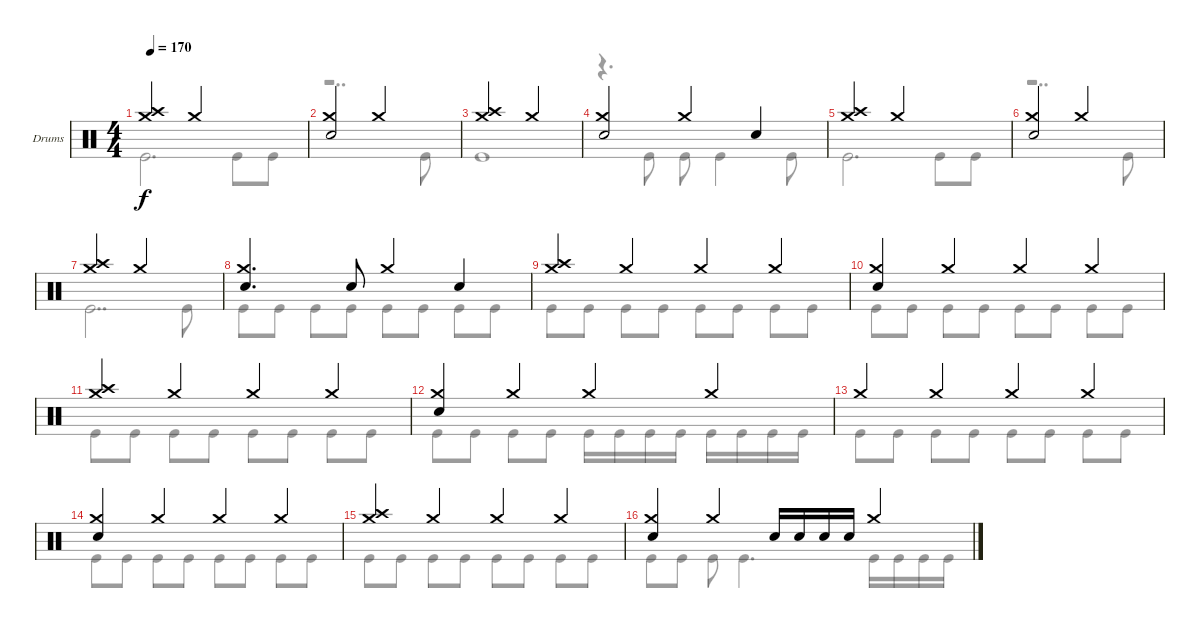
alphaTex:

\defaultSystemsLayout 4
\bracketExtendMode groupsimilarinstruments
\firstSystemTrackNameOrientation horizontal
\otherSystemsTrackNameOrientation horizontal
\track ("Drumkit" "Drums") {instrument percussion}
\staff {score}
\articulation defaults
\voice
\ts (4 4)
\tempo 170
\clef neutral
\ks c
("Crash medium (hit)" "Crash high (hit)").2{dy f} "Crash medium (hit)".2 |
("Crash medium (hit)" "Snare (hit) 2").2 "Crash medium (hit)".2 |
("Crash medium (hit)" "Crash high (hit)").2 "Crash medium (hit)".2 |
("Crash medium (hit)" "Snare (hit) 2").2 "Crash medium (hit)".4 "Snare (hit) 2".4 |
("Crash medium (hit)" "Crash high (hit)").2 "Crash medium (hit)".2 |
("Crash medium (hit)" "Snare (hit) 2").2 "Crash medium (hit)".2 |
("Crash medium (hit)" "Crash high (hit)").2 "Crash medium (hit)".2 |
("Crash medium (hit)" "Snare (hit) 2").4{d} "Snare (hit) 2".8 "Crash medium (hit)".4 "Snare (hit) 2".4 |
("Crash high (hit)" "Crash medium (hit)").4 "Crash medium (hit)".4 "Crash medium (hit)".4 "Crash medium (hit)".4 |
("Crash medium (hit)" "Snare (hit) 2").4 "Crash medium (hit)".4 "Crash medium (hit)".4 "Crash medium (hit)".4 |
("Crash high (hit)" "Crash medium (hit)").4 "Crash medium (hit)".4 "Crash medium (hit)".4 "Crash medium (hit)".4 |
("Crash medium (hit)" "Snare (hit) 2").4 "Crash medium (hit)".4 "Crash medium (hit)".4 "Crash medium (hit)".4 |
"Crash medium (hit)".4 "Crash medium (hit)".4 "Crash medium (hit)".4 "Crash medium (hit)".4 |
("Crash medium (hit)" "Snare (hit) 2").4 "Crash medium (hit)".4 "Crash medium (hit)".4 "Crash medium (hit)".4 |
("Crash high (hit)" "Crash medium (hit)").4 "Crash medium (hit)".4 "Crash medium (hit)".4 "Crash medium (hit)".4 |
("Crash medium (hit)" "Snare (hit) 2").4 "Crash medium (hit)".4 "Snare (hit) 2".16 "Snare (hit) 2".16 "Snare (hit) 2".16 "Snare (hit) 2".16 "Crash medium (hit)".4
\voice
\clef neutral
\ottava regular
\simile none
\ks c "Kick (hit)".2{d dy f} "Kick (hit)".8 "Kick (hit)".8
|
r.2{dd} "Kick (hit)".8 |
"Kick (hit)".1 |
r.4{d} "Kick (hit)".8 "Kick (hit)".8 "Kick (hit)".4 "Kick (hit)".8 |
"Kick (hit)".2{d} "Kick (hit)".8 "Kick (hit)".8 |
r.2{dd} "Kick (hit)".8 |
"Kick (hit)".2{dd} "Kick (hit)".8 |
"Kick (hit)".8 "Kick (hit)".8 "Kick (hit)".8 "Kick (hit)".8 "Kick (hit)".8 "Kick (hit)".8 "Kick (hit)".8 "Kick (hit)".8 |
"Kick (hit)".8 "Kick (hit)".8 "Kick (hit)".8 "Kick (hit)".8 "Kick (hit)".8 "Kick (hit)".8 "Kick (hit)".8 "Kick (hit)".8 |
"Kick (hit)".8 "Kick (hit)".8 "Kick (hit)".8 "Kick (hit)".8 "Kick (hit)".8 "Kick (hit)".8 "Kick (hit)".8 "Kick (hit)".8 |
"Kick (hit)".8 "Kick (hit)".8 "Kick (hit)".8 "Kick (hit)".8 "Kick (hit)".8 "Kick (hit)".8 "Kick (hit)".8 "Kick (hit)".8 |
"Kick (hit)".8 "Kick (hit)".8 "Kick (hit)".8 "Kick (hit)".8 "Kick (hit)".16 "Kick (hit)".16 "Kick (hit)".16 "Kick (hit)".16 "Kick (hit)".16 "Kick (hit)".16 "Kick (hit)".16 "Kick (hit)".16 |
"Kick (hit)".8 "Kick (hit)".8 "Kick (hit)".8 "Kick (hit)".8 "Kick (hit)".8 "Kick (hit)".8 "Kick (hit)".8 "Kick (hit)".8 |
"Kick (hit)".8 "Kick (hit)".8 "Kick (hit)".8 "Kick (hit)".8 "Kick (hit)".8 "Kick (hit)".8 "Kick (hit)".8 "Kick (hit)".8 |
"Kick (hit)".8 "Kick (hit)".8 "Kick (hit)".8 "Kick (hit)".8 "Kick (hit)".8 "Kick (hit)".8 "Kick (hit)".8 "Kick (hit)".8 |
"Kick (hit)".8 "Kick (hit)".8 "Kick (hit)".8 "Kick (hit)".4{d} "Kick (hit)".16 "Kick (hit)".16 "Kick (hit)".16 "Kick (hit)".16
